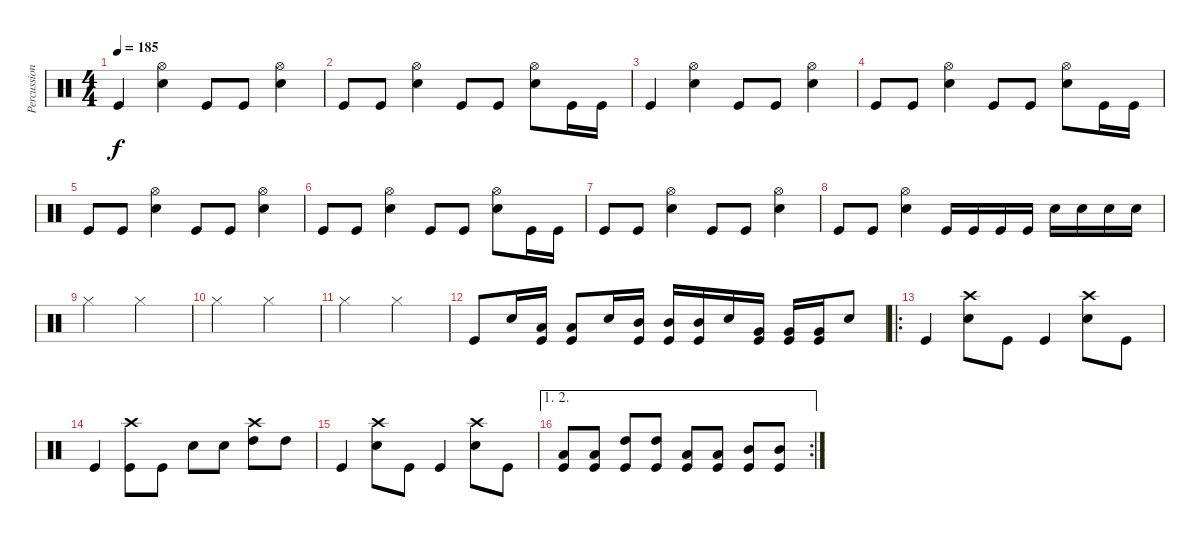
\track ("Percussions" "Percussion") {instrument percussion}
\staff {score}
\articulation defaults
\ts (4 4)
\tempo 185
\clef neutral
\ks c "Kick (hit)".4{dy f}
("Hi-Hat (open)" "Snare (hit) 2").4 "Kick (hit)".8 "Kick (hit)".8 ("Hi-Hat (open)" "Snare (hit) 2").4 |
"Kick (hit)".8 "Kick (hit)".8 ("Hi-Hat (open)" "Snare (hit) 2").4 "Kick (hit)".8 "Kick (hit)".8 ("Hi-Hat (open)" "Snare (hit) 2").8 "Kick (hit)".16 "Kick (hit)".16 |
"Kick (hit)".4 ("Hi-Hat (open)" "Snare (hit) 2").4 "Kick (hit)".8 "Kick (hit)".8 ("Hi-Hat (open)" "Snare (hit) 2").4 |
"Kick (hit)".8 "Kick (hit)".8 ("Hi-Hat (open)" "Snare (hit) 2").4 "Kick (hit)".8 "Kick (hit)".8 ("Hi-Hat (open)" "Snare (hit) 2").8 "Kick (hit)".16 "Kick (hit)".16 |
"Kick (hit)".8 "Kick (hit)".8 ("Hi-Hat (open)" "Snare (hit) 2").4 "Kick (hit)".8 "Kick (hit)".8 ("Hi-Hat (open)" "Snare (hit) 2").4 |
"Kick (hit)".8 "Kick (hit)".8 ("Hi-Hat (open)" "Snare (hit) 2").4 "Kick (hit)".8 "Kick (hit)".8 ("Hi-Hat (open)" "Snare (hit) 2").8 "Kick (hit)".16 "Kick (hit)".16 |
"Kick (hit)".8 "Kick (hit)".8 ("Hi-Hat (open)" "Snare (hit) 2").4 "Kick (hit)".8 "Kick (hit)".8 ("Hi-Hat (open)" "Snare (hit) 2").4 |
"Kick (hit)".8 "Kick (hit)".8 ("Hi-Hat (open)" "Snare (hit) 2").4 "Kick (hit)".16 "Kick (hit)".16 "Kick (hit)".16 "Kick (hit)".16 "Snare (hit) 2".16 "Snare (hit) 2".16 "Snare (hit) 2".16 "Snare (hit) 2".16 |
"Hi-Hat (closed)".2 "Hi-Hat (closed)".2 |
"Hi-Hat (closed)".2 "Hi-Hat (closed)".2 |
"Hi-Hat (closed)".2 "Hi-Hat (closed)".2 |
"Kick (hit)".8 "Snare (hit) 2".16 ("Low Tom (hit)" "Kick (hit)").16 ("Low Tom (hit)" "Kick (hit)").8 "Snare (hit) 2".16 ("Mid Tom (hit)" "Kick (hit)").16 ("Mid Tom (hit)" "Kick (hit)").16 ("Mid Tom (hit)" "Kick (hit)").16 "Snare (hit) 2".16 ("Very Low Tom (hit)" "Kick (hit)").16 ("Very Low Tom (hit)" "Kick (hit)").16 ("Very Low Tom (hit)" "Kick (hit)").16 "Snare (hit) 2".8 |
\ro "Kick (hit)".4
("Crash high (hit)" "Snare (hit) 2").8 "Kick (hit)".8 "Kick (hit)".4 ("Crash high (hit)" "Snare (hit) 2").8 "Kick (hit)".8 |
"Kick (hit)".4 ("Crash high (hit)" "Kick (hit)").8 "Kick (hit)".8 "Snare (hit) 2".8 "Snare (hit) 2".8 ("Crash high (hit)" "High Tom (hit)").8 "High Tom (hit)".8 |
"Kick (hit)".4 ("Crash high (hit)" "Snare (hit) 2").8 "Kick (hit)".8 "Kick (hit)".4 ("Crash high (hit)" "Snare (hit) 2").8 "Kick (hit)".8 |
\ae (1 2)
\rc 2
("Low Tom (hit)" "Kick (hit)").8 ("Low Tom (hit)" "Kick (hit)").8 ("High Tom (hit)" "Kick (hit)").8 ("High Tom (hit)" "Kick (hit)").8 ("Low Tom (hit)" "Kick (hit)").8 ("Low Tom (hit)" "Kick (hit)").8 ("Mid Tom (hit)" "Kick (hit)").8 ("Mid Tom (hit)" "Kick (hit)").8
